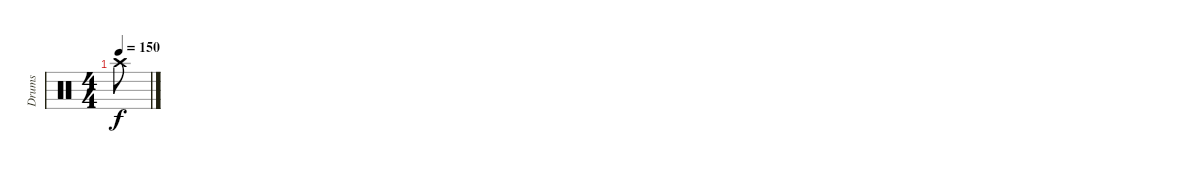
\track ("Drums" "Drums") {instrument percussion}
\staff {score}
\articulation defaults
\ts (4 4)
\tempo 150
\clef neutral
\ks c "Crash high (hit)".8{dy f}
